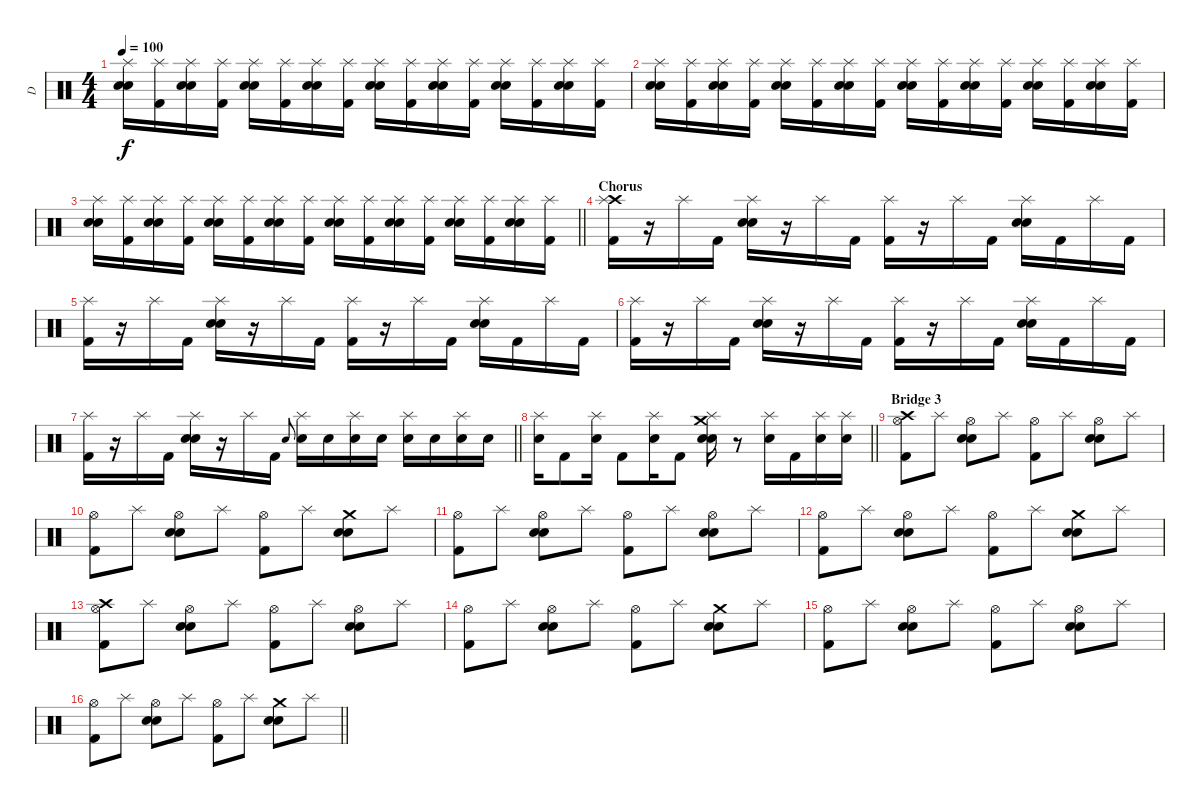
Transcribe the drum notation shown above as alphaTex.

\track ("D" "D") {instrument percussion}
\staff {score}
\articulation defaults
\ts (4 4)
\tempo 100
\clef neutral
\ks c
("Electric Snare (hit)" "Electric Snare (hit)" "Splash (hit)").16{dy f} ("Kick (hit) 2" "Splash (hit)").16 ("Electric Snare (hit)" "Electric Snare (hit)" "Splash (hit)").16 ("Kick (hit) 2" "Splash (hit)").16 ("Electric Snare (hit)" "Electric Snare (hit)" "Splash (hit)").16 ("Kick (hit) 2" "Splash (hit)").16 ("Electric Snare (hit)" "Electric Snare (hit)" "Splash (hit)").16 ("Kick (hit) 2" "Splash (hit)").16 ("Electric Snare (hit)" "Electric Snare (hit)" "Splash (hit)").16 ("Kick (hit) 2" "Splash (hit)").16 ("Electric Snare (hit)" "Electric Snare (hit)" "Splash (hit)").16 ("Kick (hit) 2" "Splash (hit)").16 ("Electric Snare (hit)" "Electric Snare (hit)" "Splash (hit)").16 ("Kick (hit) 2" "Splash (hit)").16 ("Electric Snare (hit)" "Electric Snare (hit)" "Splash (hit)").16 ("Kick (hit) 2" "Splash (hit)").16 |
("Electric Snare (hit)" "Electric Snare (hit)" "Splash (hit)").16 ("Kick (hit) 2" "Splash (hit)").16 ("Electric Snare (hit)" "Electric Snare (hit)" "Splash (hit)").16 ("Kick (hit) 2" "Splash (hit)").16 ("Electric Snare (hit)" "Electric Snare (hit)" "Splash (hit)").16 ("Kick (hit) 2" "Splash (hit)").16 ("Electric Snare (hit)" "Electric Snare (hit)" "Splash (hit)").16 ("Kick (hit) 2" "Splash (hit)").16 ("Electric Snare (hit)" "Electric Snare (hit)" "Splash (hit)").16 ("Kick (hit) 2" "Splash (hit)").16 ("Electric Snare (hit)" "Electric Snare (hit)" "Splash (hit)").16 ("Kick (hit) 2" "Splash (hit)").16 ("Electric Snare (hit)" "Electric Snare (hit)" "Splash (hit)").16 ("Kick (hit) 2" "Splash (hit)").16 ("Electric Snare (hit)" "Electric Snare (hit)" "Splash (hit)").16 ("Kick (hit) 2" "Splash (hit)").16 |
\barLineRight lightlight
("Electric Snare (hit)" "Electric Snare (hit)" "Splash (hit)").16 ("Kick (hit) 2" "Splash (hit)").16 ("Electric Snare (hit)" "Electric Snare (hit)" "Splash (hit)").16 ("Kick (hit) 2" "Splash (hit)").16 ("Electric Snare (hit)" "Electric Snare (hit)" "Splash (hit)").16 ("Kick (hit) 2" "Splash (hit)").16 ("Electric Snare (hit)" "Electric Snare (hit)" "Splash (hit)").16 ("Kick (hit) 2" "Splash (hit)").16 ("Electric Snare (hit)" "Electric Snare (hit)" "Splash (hit)").16 ("Kick (hit) 2" "Splash (hit)").16 ("Electric Snare (hit)" "Electric Snare (hit)" "Splash (hit)").16 ("Kick (hit) 2" "Splash (hit)").16 ("Electric Snare (hit)" "Electric Snare (hit)" "Splash (hit)").16 ("Kick (hit) 2" "Splash (hit)").16 ("Electric Snare (hit)" "Electric Snare (hit)" "Splash (hit)").16 ("Kick (hit) 2" "Splash (hit)").16 |
\section ("" "Chorus")
("Crash high (hit)" "Kick (hit) 2" "Splash (hit)").16 r.16 "Splash (hit)".16 "Kick (hit) 2".16 ("Electric Snare (hit)" "Electric Snare (hit)" "Splash (hit)").16 r.16 "Splash (hit)".16 "Kick (hit) 2".16 ("Kick (hit) 2" "Splash (hit)").16 r.16 "Splash (hit)".16 "Kick (hit) 2".16 ("Electric Snare (hit)" "Electric Snare (hit)" "Splash (hit)").16 "Kick (hit) 2".16 "Splash (hit)".16 "Kick (hit) 2".16 |
("Kick (hit) 2" "Splash (hit)").16 r.16 "Splash (hit)".16 "Kick (hit) 2".16 ("Electric Snare (hit)" "Electric Snare (hit)" "Splash (hit)").16 r.16 "Splash (hit)".16 "Kick (hit) 2".16 ("Kick (hit) 2" "Splash (hit)").16 r.16 "Splash (hit)".16 "Kick (hit) 2".16 ("Electric Snare (hit)" "Electric Snare (hit)" "Splash (hit)").16 "Kick (hit) 2".16 "Splash (hit)".16 "Kick (hit) 2".16 |
("Kick (hit) 2" "Splash (hit)").16 r.16 "Splash (hit)".16 "Kick (hit) 2".16 ("Electric Snare (hit)" "Electric Snare (hit)" "Splash (hit)").16 r.16 "Splash (hit)".16 "Kick (hit) 2".16 ("Kick (hit) 2" "Splash (hit)").16 r.16 "Splash (hit)".16 "Kick (hit) 2".16 ("Electric Snare (hit)" "Electric Snare (hit)" "Splash (hit)").16 "Kick (hit) 2".16 "Splash (hit)".16 "Kick (hit) 2".16 |
\barLineRight lightlight
("Kick (hit) 2" "Splash (hit)").16 r.16 "Splash (hit)".16 "Kick (hit) 2".16 ("Electric Snare (hit)" "Electric Snare (hit)" "Splash (hit)").16 r.16 "Splash (hit)".16 "Kick (hit) 2".16 "Electric Snare (hit)".8{gr onbeat} ("Electric Snare (hit)" "Splash (hit)").16 "Electric Snare (hit)".16 ("Electric Snare (hit)" "Splash (hit)").16 "Electric Snare (hit)".16 ("Electric Snare (hit)" "Splash (hit)").16 "Electric Snare (hit)".16 ("Electric Snare (hit)" "Splash (hit)").16 "Electric Snare (hit)".16 |
\section ("" "")
\barLineRight lightlight
("Electric Snare (hit)" "Splash (hit)").16 "Kick (hit) 2".8 ("Electric Snare (hit)" "Splash (hit)").16 "Kick (hit) 2".8 ("Electric Snare (hit)" "Splash (hit)").16 "Kick (hit) 2".8 ("Crash medium (hit)" "Electric Snare (hit)" "Electric Snare (hit)" "Splash (hit)").16 r.8 ("Electric Snare (hit)" "Splash (hit)").16 "Kick (hit) 2".16 ("Electric Snare (hit)" "Splash (hit)").16 ("Electric Snare (hit)" "Splash (hit)").16 |
\section ("" "Bridge 3")
("Crash high (hit)" "Kick (hit) 2" "Hi-Hat (open)").8 "Splash (hit)".8 ("Electric Snare (hit)" "Electric Snare (hit)" "Hi-Hat (open)").8 "Splash (hit)".8 ("Kick (hit) 2" "Hi-Hat (open)").8 "Splash (hit)".8 ("Electric Snare (hit)" "Electric Snare (hit)" "Hi-Hat (open)").8 "Splash (hit)".8 |
("Kick (hit) 2" "Hi-Hat (open)").8 "Splash (hit)".8 ("Electric Snare (hit)" "Electric Snare (hit)" "Hi-Hat (open)").8 "Splash (hit)".8 ("Kick (hit) 2" "Hi-Hat (open)").8 "Splash (hit)".8 ("Crash medium (hit)" "Electric Snare (hit)" "Electric Snare (hit)").8 "Splash (hit)".8 |
("Kick (hit) 2" "Hi-Hat (open)").8 "Splash (hit)".8 ("Electric Snare (hit)" "Electric Snare (hit)" "Hi-Hat (open)").8 "Splash (hit)".8 ("Kick (hit) 2" "Hi-Hat (open)").8 "Splash (hit)".8 ("Electric Snare (hit)" "Electric Snare (hit)" "Hi-Hat (open)").8 "Splash (hit)".8 |
("Kick (hit) 2" "Hi-Hat (open)").8 "Splash (hit)".8 ("Electric Snare (hit)" "Electric Snare (hit)" "Hi-Hat (open)").8 "Splash (hit)".8 ("Kick (hit) 2" "Hi-Hat (open)").8 "Splash (hit)".8 ("Crash medium (hit)" "Electric Snare (hit)" "Electric Snare (hit)").8 "Splash (hit)".8 |
("Crash high (hit)" "Kick (hit) 2" "Hi-Hat (open)").8 "Splash (hit)".8 ("Electric Snare (hit)" "Electric Snare (hit)" "Hi-Hat (open)").8 "Splash (hit)".8 ("Kick (hit) 2" "Hi-Hat (open)").8 "Splash (hit)".8 ("Electric Snare (hit)" "Electric Snare (hit)" "Hi-Hat (open)").8 "Splash (hit)".8 |
("Kick (hit) 2" "Hi-Hat (open)").8 "Splash (hit)".8 ("Electric Snare (hit)" "Electric Snare (hit)" "Hi-Hat (open)").8 "Splash (hit)".8 ("Kick (hit) 2" "Hi-Hat (open)").8 "Splash (hit)".8 ("Crash medium (hit)" "Electric Snare (hit)" "Electric Snare (hit)").8 "Splash (hit)".8 |
("Kick (hit) 2" "Hi-Hat (open)").8 "Splash (hit)".8 ("Electric Snare (hit)" "Electric Snare (hit)" "Hi-Hat (open)").8 "Splash (hit)".8 ("Kick (hit) 2" "Hi-Hat (open)").8 "Splash (hit)".8 ("Electric Snare (hit)" "Electric Snare (hit)" "Hi-Hat (open)").8 "Splash (hit)".8 |
\barLineRight lightlight
("Kick (hit) 2" "Hi-Hat (open)").8 "Splash (hit)".8 ("Electric Snare (hit)" "Electric Snare (hit)" "Hi-Hat (open)").8 "Splash (hit)".8 ("Kick (hit) 2" "Hi-Hat (open)").8 "Splash (hit)".8 ("Crash medium (hit)" "Electric Snare (hit)" "Electric Snare (hit)").8 "Splash (hit)".8{volume 0}
